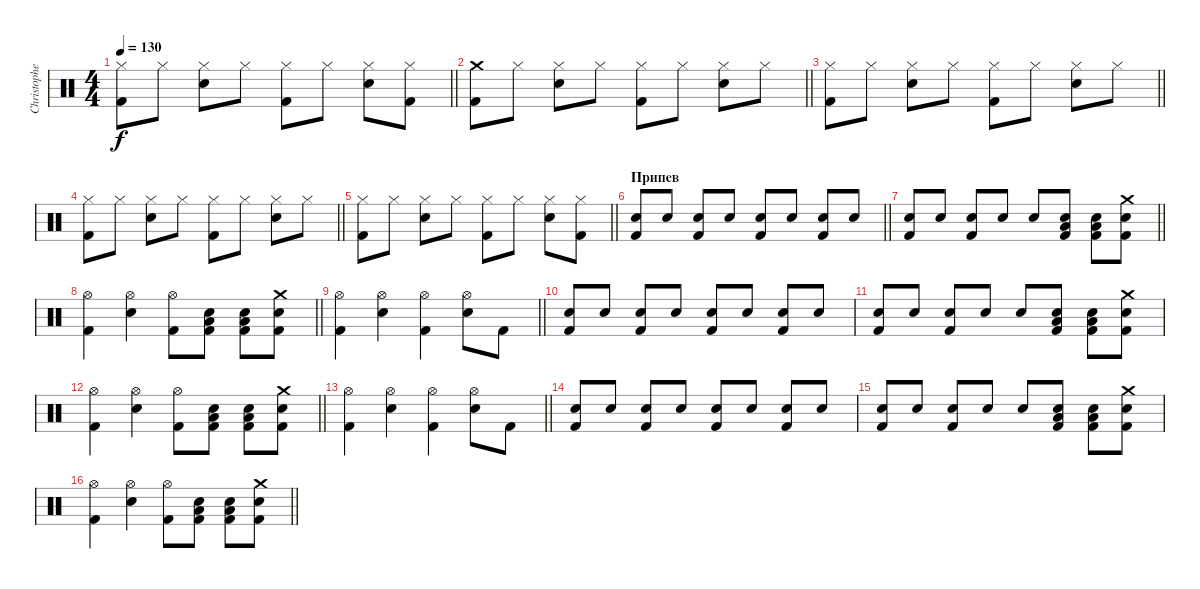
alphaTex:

\track ("Christopher Schneider" "Christophe") {instrument percussion}
\staff {score}
\articulation defaults
\ts (4 4)
\tempo 130
\clef neutral
\barLineRight lightlight
\ks c
("Hi-Hat (closed)" "Kick (hit) 2").8{dy f} "Hi-Hat (closed)".8 ("Hi-Hat (closed)" "Electric Snare (hit)").8 "Hi-Hat (closed)".8 ("Hi-Hat (closed)" "Kick (hit) 2").8 "Hi-Hat (closed)".8 ("Hi-Hat (closed)" "Electric Snare (hit)").8 ("Hi-Hat (closed)" "Kick (hit) 2").8 |
\barLineRight lightlight
("Crash medium (hit)" "Kick (hit) 2").8 "Hi-Hat (closed)".8 ("Hi-Hat (closed)" "Electric Snare (hit)").8 "Hi-Hat (closed)".8 ("Hi-Hat (closed)" "Kick (hit) 2").8 "Hi-Hat (closed)".8 ("Hi-Hat (closed)" "Electric Snare (hit)").8 "Hi-Hat (closed)".8 |
\barLineRight lightlight
("Hi-Hat (closed)" "Kick (hit) 2").8 "Hi-Hat (closed)".8 ("Hi-Hat (closed)" "Electric Snare (hit)").8 "Hi-Hat (closed)".8 ("Hi-Hat (closed)" "Kick (hit) 2").8 "Hi-Hat (closed)".8 ("Hi-Hat (closed)" "Electric Snare (hit)").8 "Hi-Hat (closed)".8 |
\barLineRight lightlight
("Hi-Hat (closed)" "Kick (hit) 2").8 "Hi-Hat (closed)".8 ("Hi-Hat (closed)" "Electric Snare (hit)").8 "Hi-Hat (closed)".8 ("Hi-Hat (closed)" "Kick (hit) 2").8 "Hi-Hat (closed)".8 ("Hi-Hat (closed)" "Electric Snare (hit)").8 "Hi-Hat (closed)".8 |
\barLineRight lightlight
("Hi-Hat (closed)" "Kick (hit) 2").8 "Hi-Hat (closed)".8 ("Hi-Hat (closed)" "Electric Snare (hit)").8 "Hi-Hat (closed)".8 ("Hi-Hat (closed)" "Kick (hit) 2").8 "Hi-Hat (closed)".8 ("Hi-Hat (closed)" "Electric Snare (hit)").8 ("Hi-Hat (closed)" "Kick (hit) 2").8 |
\section ("" "Припев")
\barLineRight lightlight
("Kick (hit) 2" "Electric Snare (hit)").8 "Electric Snare (hit)".8 ("Kick (hit) 2" "Electric Snare (hit)").8 "Electric Snare (hit)".8 ("Kick (hit) 2" "Electric Snare (hit)").8 "Electric Snare (hit)".8 ("Kick (hit) 2" "Electric Snare (hit)").8 "Electric Snare (hit)".8 |
\barLineRight lightlight
("Kick (hit) 2" "Electric Snare (hit)").8 "Electric Snare (hit)".8 ("Kick (hit) 2" "Electric Snare (hit)").8 "Electric Snare (hit)".8 "Electric Snare (hit)".8 ("Low Tom (hit)" "Electric Snare (hit)" "Kick (hit) 2").8 ("Low Tom (hit)" "Electric Snare (hit)" "Kick (hit) 2").8 ("Crash medium (hit)" "Electric Snare (hit)" "Kick (hit) 2").8 |
\barLineRight lightlight
("Hi-Hat (open)" "Kick (hit) 2").4 ("Hi-Hat (open)" "Electric Snare (hit)").4 ("Hi-Hat (open)" "Kick (hit) 2").8 ("Low Tom (hit)" "Electric Snare (hit)" "Kick (hit) 2").8 ("Low Tom (hit)" "Electric Snare (hit)" "Kick (hit) 2").8 ("Crash medium (hit)" "Electric Snare (hit)" "Kick (hit) 2").8 |
\barLineRight lightlight
("Hi-Hat (open)" "Kick (hit) 2").4 ("Hi-Hat (open)" "Electric Snare (hit)").4 ("Hi-Hat (open)" "Kick (hit) 2").4 ("Hi-Hat (open)" "Electric Snare (hit)").8 "Kick (hit) 2".8 |
("Kick (hit) 2" "Electric Snare (hit)").8 "Electric Snare (hit)".8 ("Kick (hit) 2" "Electric Snare (hit)").8 "Electric Snare (hit)".8 ("Kick (hit) 2" "Electric Snare (hit)").8 "Electric Snare (hit)".8 ("Kick (hit) 2" "Electric Snare (hit)").8 "Electric Snare (hit)".8 |
("Kick (hit) 2" "Electric Snare (hit)").8 "Electric Snare (hit)".8 ("Kick (hit) 2" "Electric Snare (hit)").8 "Electric Snare (hit)".8 "Electric Snare (hit)".8 ("Low Tom (hit)" "Electric Snare (hit)" "Kick (hit) 2").8 ("Low Tom (hit)" "Electric Snare (hit)" "Kick (hit) 2").8 ("Crash medium (hit)" "Electric Snare (hit)" "Kick (hit) 2").8 |
\barLineRight lightlight
("Hi-Hat (open)" "Kick (hit) 2").4 ("Hi-Hat (open)" "Electric Snare (hit)").4 ("Hi-Hat (open)" "Kick (hit) 2").8 ("Low Tom (hit)" "Electric Snare (hit)" "Kick (hit) 2").8 ("Low Tom (hit)" "Electric Snare (hit)" "Kick (hit) 2").8 ("Crash medium (hit)" "Electric Snare (hit)" "Kick (hit) 2").8 |
\barLineRight lightlight
("Hi-Hat (open)" "Kick (hit) 2").4 ("Hi-Hat (open)" "Electric Snare (hit)").4 ("Hi-Hat (open)" "Kick (hit) 2").4 ("Hi-Hat (open)" "Electric Snare (hit)").8 "Kick (hit) 2".8 |
("Kick (hit) 2" "Electric Snare (hit)").8 "Electric Snare (hit)".8 ("Kick (hit) 2" "Electric Snare (hit)").8 "Electric Snare (hit)".8 ("Kick (hit) 2" "Electric Snare (hit)").8 "Electric Snare (hit)".8 ("Kick (hit) 2" "Electric Snare (hit)").8 "Electric Snare (hit)".8 |
("Kick (hit) 2" "Electric Snare (hit)").8 "Electric Snare (hit)".8 ("Kick (hit) 2" "Electric Snare (hit)").8 "Electric Snare (hit)".8 "Electric Snare (hit)".8 ("Low Tom (hit)" "Electric Snare (hit)" "Kick (hit) 2").8 ("Low Tom (hit)" "Electric Snare (hit)" "Kick (hit) 2").8 ("Crash medium (hit)" "Electric Snare (hit)" "Kick (hit) 2").8 |
\barLineRight lightlight
("Hi-Hat (open)" "Kick (hit) 2").4 ("Hi-Hat (open)" "Electric Snare (hit)").4 ("Hi-Hat (open)" "Kick (hit) 2").8 ("Low Tom (hit)" "Electric Snare (hit)" "Kick (hit) 2").8 ("Low Tom (hit)" "Electric Snare (hit)" "Kick (hit) 2").8 ("Crash medium (hit)" "Electric Snare (hit)" "Kick (hit) 2").8
